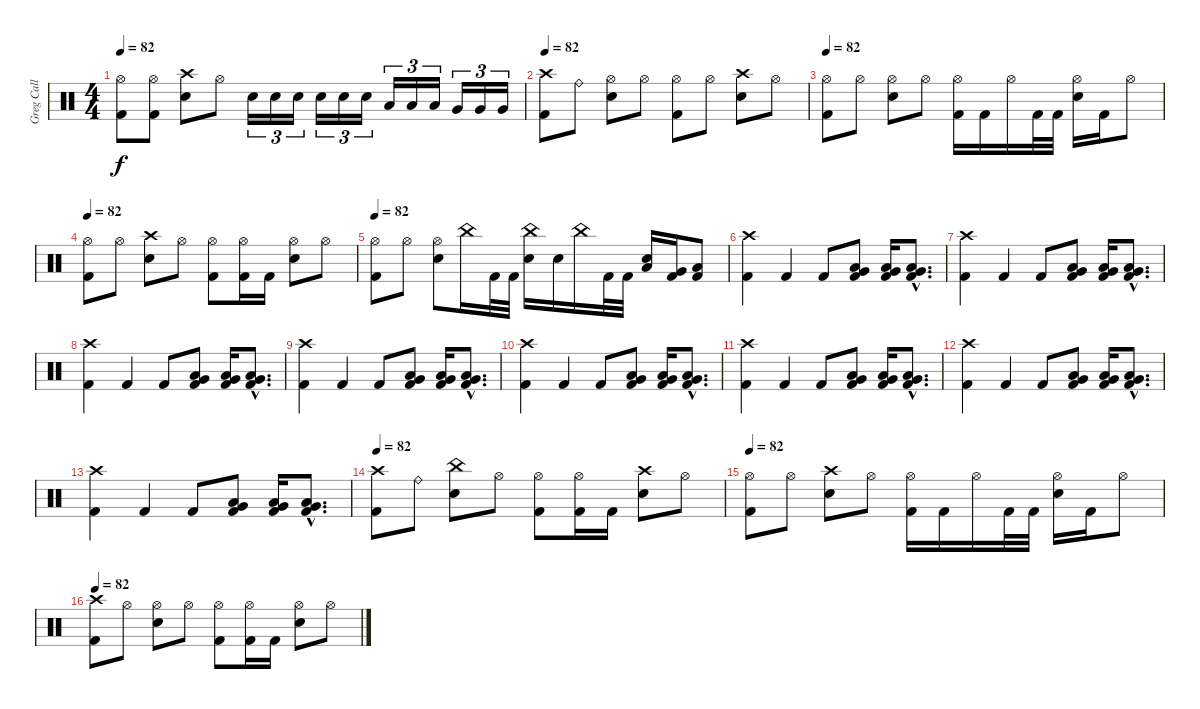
\track ("Greg Call (Drums)" "Greg Call ") {instrument percussion}
\staff {score}
\articulation defaults
\ts (4 4)
\tempo 82
\clef neutral
\ks c
("Hi-Hat (open)" "Kick (hit) 2").8{dy f} ("Hi-Hat (open)" "Kick (hit) 2").8 ("Crash high (hit)" "Snare (hit) 2").8 "Hi-Hat (open)".8 "Snare (hit) 2".16{tu (3 2)} "Snare (hit) 2".16{tu (3 2)} "Snare (hit) 2".16{tu (3 2)} "Snare (hit) 2".16{tu (3 2)} "Snare (hit) 2".16{tu (3 2)} "Snare (hit) 2".16{tu (3 2)} "Low Tom (hit)".16{tu (3 2)} "Low Tom (hit)".16{tu (3 2)} "Low Tom (hit)".16{tu (3 2)} "Very Low Tom (hit)".16{tu (3 2)} "Very Low Tom (hit)".16{tu (3 2)} "Very Low Tom (hit)".16{tu (3 2)} |
\tempo 82
("Crash high (hit)" "Kick (hit) 2").8 "Ride (bell)".8 ("Hi-Hat (open)" "Electric Snare (hit)").8 "Hi-Hat (open)".8 ("Hi-Hat (open)" "Kick (hit) 2").8 "Hi-Hat (open)".8 ("Crash high (hit)" "Snare (hit) 2").8 "Hi-Hat (open)".8 |
\tempo 82
("Hi-Hat (open)" "Kick (hit) 2").8 "Hi-Hat (open)".8 ("Hi-Hat (open)" "Snare (hit) 2").8 "Hi-Hat (open)".8 ("Hi-Hat (open)" "Kick (hit) 2").16 "Kick (hit) 2".16 "Hi-Hat (open)".16 "Kick (hit) 2".32 "Kick (hit) 2".32 ("Hi-Hat (open)" "Snare (hit) 2").16 "Kick (hit) 2".16 "Hi-Hat (open)".8 |
\tempo 82
("Hi-Hat (open)" "Kick (hit) 2").8 "Hi-Hat (open)".8 ("Crash high (hit)" "Snare (hit) 2").8 "Hi-Hat (open)".8 ("Hi-Hat (open)" "Kick (hit) 2").8 ("Hi-Hat (open)" "Kick (hit) 2").16 "Kick (hit) 2".16 ("Hi-Hat (open)" "Snare (hit) 2").8 "Hi-Hat (open)".8 |
\tempo 82
("Hi-Hat (open)" "Kick (hit) 2").8 "Hi-Hat (open)".8 ("Hi-Hat (open)" "Snare (hit) 2").8 "China (hit)".16 "Kick (hit) 2".32 "Kick (hit) 2".32 ("China (hit)" "Snare (hit) 2").16 "Snare (hit) 2".16 "China (hit)".16 "Kick (hit) 2".32 "Kick (hit) 2".32 ("Low Tom (hit)" "Snare (hit) 2").16 ("Very Low Tom (hit)" "Kick (hit) 2").16 ("Low Floor Tom (hit)" "Kick (hit) 2").8 |
("Kick (hit) 2" "Crash high (hit)").4 "Kick (hit) 2".4 "Kick (hit) 2".8 ("Low Floor Tom (hit)" "Very Low Tom (hit)" "Kick (hit) 2").8 ("Very Low Tom (hit)" "Low Floor Tom (hit)" "Kick (hit) 2").16 ("Low Floor Tom (hit)"{hac} "Very Low Tom (hit)"{hac} "Kick (hit) 2"{hac}).8{d} |
("Kick (hit) 2" "Crash high (hit)").4 "Kick (hit) 2".4 "Kick (hit) 2".8 ("Low Floor Tom (hit)" "Very Low Tom (hit)" "Kick (hit) 2").8 ("Very Low Tom (hit)" "Low Floor Tom (hit)" "Kick (hit) 2").16 ("Low Floor Tom (hit)"{hac} "Very Low Tom (hit)"{hac} "Kick (hit) 2"{hac}).8{d} |
("Kick (hit) 2" "Crash high (hit)").4 "Kick (hit) 2".4 "Kick (hit) 2".8 ("Low Floor Tom (hit)" "Very Low Tom (hit)" "Kick (hit) 2").8 ("Very Low Tom (hit)" "Low Floor Tom (hit)" "Kick (hit) 2").16 ("Low Floor Tom (hit)"{hac} "Very Low Tom (hit)"{hac} "Kick (hit) 2"{hac}).8{d} |
("Kick (hit) 2" "Crash high (hit)").4 "Kick (hit) 2".4 "Kick (hit) 2".8 ("Low Floor Tom (hit)" "Very Low Tom (hit)" "Kick (hit) 2").8 ("Very Low Tom (hit)" "Low Floor Tom (hit)" "Kick (hit) 2").16 ("Low Floor Tom (hit)"{hac} "Very Low Tom (hit)"{hac} "Kick (hit) 2"{hac}).8{d} |
("Kick (hit) 2" "Crash high (hit)").4 "Kick (hit) 2".4 "Kick (hit) 2".8 ("Low Floor Tom (hit)" "Very Low Tom (hit)" "Kick (hit) 2").8 ("Very Low Tom (hit)" "Low Floor Tom (hit)" "Kick (hit) 2").16 ("Low Floor Tom (hit)"{hac} "Very Low Tom (hit)"{hac} "Kick (hit) 2"{hac}).8{d} |
("Kick (hit) 2" "Crash high (hit)").4 "Kick (hit) 2".4 "Kick (hit) 2".8 ("Low Floor Tom (hit)" "Very Low Tom (hit)" "Kick (hit) 2").8 ("Very Low Tom (hit)" "Low Floor Tom (hit)" "Kick (hit) 2").16 ("Low Floor Tom (hit)"{hac} "Very Low Tom (hit)"{hac} "Kick (hit) 2"{hac}).8{d} |
("Kick (hit) 2" "Crash high (hit)").4 "Kick (hit) 2".4 "Kick (hit) 2".8 ("Low Floor Tom (hit)" "Very Low Tom (hit)" "Kick (hit) 2").8 ("Very Low Tom (hit)" "Low Floor Tom (hit)" "Kick (hit) 2").16 ("Low Floor Tom (hit)"{hac} "Very Low Tom (hit)"{hac} "Kick (hit) 2"{hac}).8{d} |
("Kick (hit) 2" "Crash high (hit)").4 "Kick (hit) 2".4 "Kick (hit) 2".8 ("Low Floor Tom (hit)" "Very Low Tom (hit)" "Kick (hit) 2").8 ("Very Low Tom (hit)" "Low Floor Tom (hit)" "Kick (hit) 2").16 ("Low Floor Tom (hit)"{hac} "Very Low Tom (hit)"{hac} "Kick (hit) 2"{hac}).8{d} |
\tempo 82
("Crash high (hit)" "Kick (hit) 2").8 "Ride (bell)".8 ("China (hit)" "Snare (hit) 2").8 "Hi-Hat (open)".8 ("Hi-Hat (open)" "Kick (hit) 2").8 ("Hi-Hat (open)" "Kick (hit) 2").16 "Kick (hit) 2".16 ("Crash high (hit)" "Snare (hit) 2").8 "Hi-Hat (open)".8 |
\tempo 82
("Hi-Hat (open)" "Kick (hit) 2").8 "Hi-Hat (open)".8 ("Crash high (hit)" "Snare (hit) 2").8 "Hi-Hat (open)".8 ("Hi-Hat (open)" "Kick (hit) 2").16 "Kick (hit) 2".16 "Hi-Hat (open)".16 "Kick (hit) 2".32 "Kick (hit) 2".32 ("Hi-Hat (open)" "Snare (hit) 2").16 "Kick (hit) 2".16 "Hi-Hat (open)".8 |
\tempo 82
("Crash high (hit)" "Kick (hit) 2").8 "Hi-Hat (open)".8 ("Hi-Hat (open)" "Snare (hit) 2").8 "Hi-Hat (open)".8 ("Hi-Hat (open)" "Kick (hit) 2").8 ("Hi-Hat (open)" "Kick (hit) 2").16 "Kick (hit) 2".16 ("Hi-Hat (open)" "Snare (hit) 2").8 "Hi-Hat (open)".8
